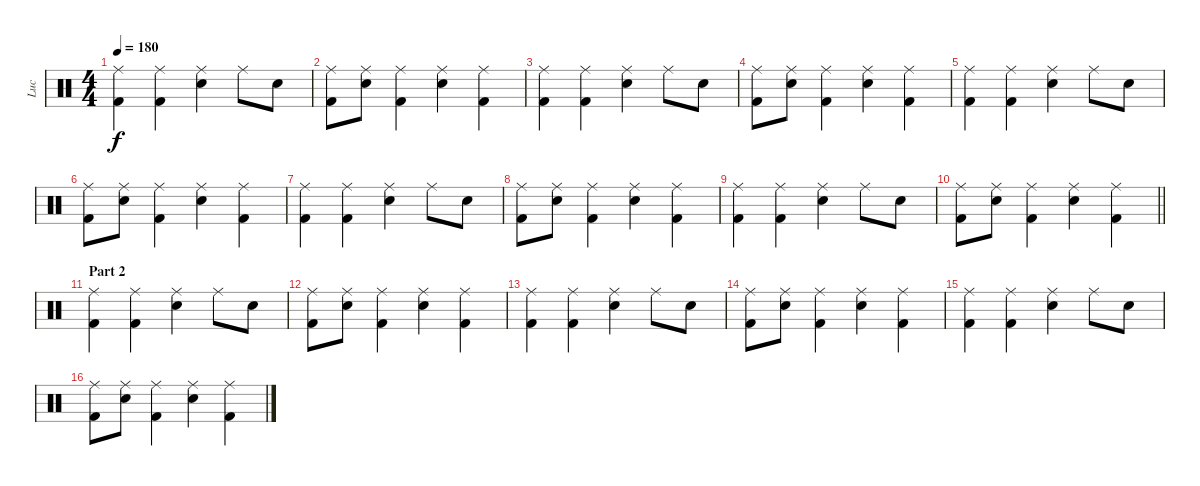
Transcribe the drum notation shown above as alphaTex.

\track ("Luc" "Luc") {instrument percussion}
\staff {score}
\articulation defaults
\ts (4 4)
\tempo 180
\clef neutral
\ks c
("Ride (middle)" "Kick (hit) 2").4{dy f} ("Ride (middle)" "Kick (hit) 2").4 ("Ride (middle)" "Snare (hit) 2").4 "Ride (middle)".8 "Snare (hit) 2".8 |
("Ride (middle)" "Kick (hit) 2").8 ("Ride (middle)" "Snare (hit) 2").8 ("Ride (middle)" "Kick (hit) 2").4 ("Ride (middle)" "Snare (hit) 2").4 ("Ride (middle)" "Kick (hit) 2").4 |
("Ride (middle)" "Kick (hit) 2").4 ("Ride (middle)" "Kick (hit) 2").4 ("Ride (middle)" "Snare (hit) 2").4 "Ride (middle)".8 "Snare (hit) 2".8 |
("Ride (middle)" "Kick (hit) 2").8 ("Ride (middle)" "Snare (hit) 2").8 ("Ride (middle)" "Kick (hit) 2").4 ("Ride (middle)" "Snare (hit) 2").4 ("Ride (middle)" "Kick (hit) 2").4 |
("Ride (middle)" "Kick (hit) 2").4 ("Ride (middle)" "Kick (hit) 2").4 ("Ride (middle)" "Snare (hit) 2").4 "Ride (middle)".8 "Snare (hit) 2".8 |
("Ride (middle)" "Kick (hit) 2").8 ("Ride (middle)" "Snare (hit) 2").8 ("Ride (middle)" "Kick (hit) 2").4 ("Ride (middle)" "Snare (hit) 2").4 ("Ride (middle)" "Kick (hit) 2").4 |
("Ride (middle)" "Kick (hit) 2").4 ("Ride (middle)" "Kick (hit) 2").4 ("Ride (middle)" "Snare (hit) 2").4 "Ride (middle)".8 "Snare (hit) 2".8 |
("Ride (middle)" "Kick (hit) 2").8 ("Ride (middle)" "Snare (hit) 2").8 ("Ride (middle)" "Kick (hit) 2").4 ("Ride (middle)" "Snare (hit) 2").4 ("Ride (middle)" "Kick (hit) 2").4 |
("Ride (middle)" "Kick (hit) 2").4 ("Ride (middle)" "Kick (hit) 2").4 ("Ride (middle)" "Snare (hit) 2").4 "Ride (middle)".8 "Snare (hit) 2".8 |
\barLineRight lightlight
("Ride (middle)" "Kick (hit) 2").8 ("Ride (middle)" "Snare (hit) 2").8 ("Ride (middle)" "Kick (hit) 2").4 ("Ride (middle)" "Snare (hit) 2").4 ("Ride (middle)" "Kick (hit) 2").4 |
\section ("" "Part 2")
("Ride (middle)" "Kick (hit) 2").4 ("Ride (middle)" "Kick (hit) 2").4 ("Ride (middle)" "Snare (hit) 2").4 "Ride (middle)".8 "Snare (hit) 2".8 |
("Ride (middle)" "Kick (hit) 2").8 ("Ride (middle)" "Snare (hit) 2").8 ("Ride (middle)" "Kick (hit) 2").4 ("Ride (middle)" "Snare (hit) 2").4 ("Ride (middle)" "Kick (hit) 2").4 |
("Ride (middle)" "Kick (hit) 2").4 ("Ride (middle)" "Kick (hit) 2").4 ("Ride (middle)" "Snare (hit) 2").4 "Ride (middle)".8 "Snare (hit) 2".8 |
("Ride (middle)" "Kick (hit) 2").8 ("Ride (middle)" "Snare (hit) 2").8 ("Ride (middle)" "Kick (hit) 2").4 ("Ride (middle)" "Snare (hit) 2").4 ("Ride (middle)" "Kick (hit) 2").4 |
("Ride (middle)" "Kick (hit) 2").4 ("Ride (middle)" "Kick (hit) 2").4 ("Ride (middle)" "Snare (hit) 2").4 "Ride (middle)".8 "Snare (hit) 2".8 |
("Ride (middle)" "Kick (hit) 2").8 ("Ride (middle)" "Snare (hit) 2").8 ("Ride (middle)" "Kick (hit) 2").4 ("Ride (middle)" "Snare (hit) 2").4 ("Ride (middle)" "Kick (hit) 2").4
